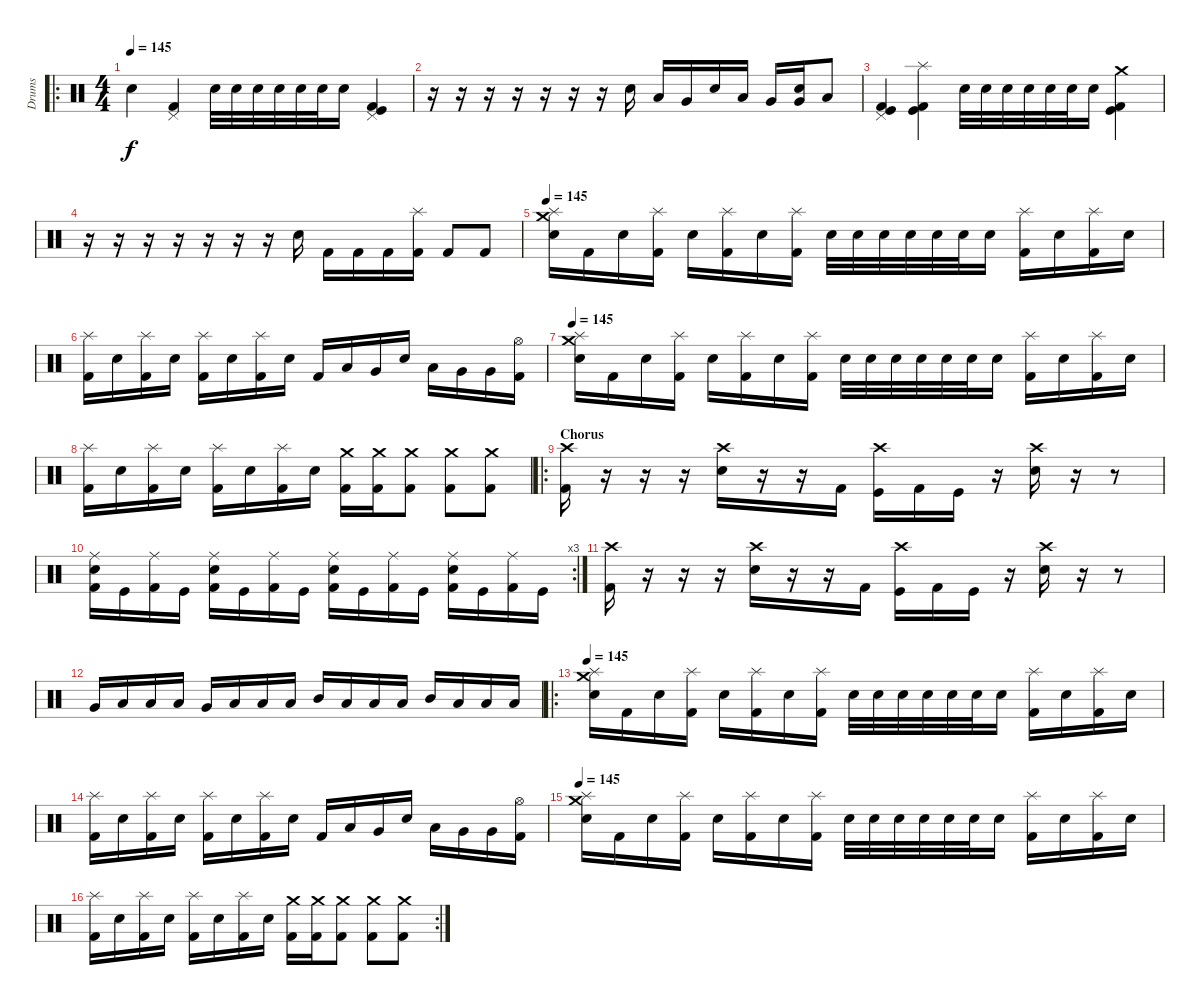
\track ("Drums" "Drums") {instrument percussion}
\staff {score}
\articulation defaults
\ro
\ts (4 4)
\tempo 145
\clef neutral
\ks c "Electric Snare (hit)".4{dy f}
("Kick (hit) 2" "Pedal Hi-Hat (hit)").4 "Electric Snare (hit)".32 "Electric Snare (hit)".32 "Electric Snare (hit)".32 "Electric Snare (hit)".32 "Electric Snare (hit)".32 "Electric Snare (hit)".32 "Electric Snare (hit)".16 ("Kick (hit) 2" "Kick (hit)" "Pedal Hi-Hat (hit)").4 |
r.16 r.16 r.16 r.16 r.16 r.16 r.16 "Electric Snare (hit)".16 "Low Tom (hit)".16 "Very Low Tom (hit)".16 "Electric Snare (hit)".16 "Low Tom (hit)".16 "Very Low Tom (hit)".16 ("Very Low Tom (hit)" "Snare (hit)").16 "Low Floor Tom (hit)".8 |
("Kick (hit) 2" "Kick (hit)" "Pedal Hi-Hat (hit)").4 ("Kick (hit) 2" "Kick (hit)" "Splash (hit)").4 "Electric Snare (hit)".32 "Electric Snare (hit)".32 "Electric Snare (hit)".32 "Electric Snare (hit)".32 "Electric Snare (hit)".32 "Electric Snare (hit)".32 "Electric Snare (hit)".16 ("Kick (hit) 2" "Kick (hit)" "Crash medium (hit)").4 |
r.16 r.16 r.16 r.16 r.16 r.16 r.16 "Electric Snare (hit)".16 "Kick (hit) 2".16 "Kick (hit) 2".16 "Kick (hit) 2".16 ("Kick (hit) 2" "Splash (hit)").16 "Kick (hit) 2".8 "Kick (hit) 2".8 |
\tempo 145
("Electric Snare (hit)" "Crash medium (hit)" "Splash (hit)").16 "Kick (hit) 2".16 "Electric Snare (hit)".16 ("Kick (hit) 2" "Splash (hit)").16 "Electric Snare (hit)".16 ("Kick (hit) 2" "Splash (hit)").16 "Electric Snare (hit)".16 ("Kick (hit) 2" "Splash (hit)").16 "Electric Snare (hit)".32 "Electric Snare (hit)".32 "Electric Snare (hit)".32 "Electric Snare (hit)".32 "Electric Snare (hit)".32 "Electric Snare (hit)".32 "Electric Snare (hit)".16 ("Kick (hit) 2" "Splash (hit)").16 "Electric Snare (hit)".16 ("Kick (hit) 2" "Splash (hit)").16 "Electric Snare (hit)".16 |
("Kick (hit) 2" "Splash (hit)").16 "Electric Snare (hit)".16 ("Kick (hit) 2" "Splash (hit)").16 "Electric Snare (hit)".16 ("Kick (hit) 2" "Splash (hit)").16 "Electric Snare (hit)".16 ("Kick (hit) 2" "Splash (hit)").16 "Electric Snare (hit)".16 "Kick (hit) 2".16 "Low Tom (hit)".16 "Very Low Tom (hit)".16 "Electric Snare (hit)".16 "Low Tom (hit)".16 "Very Low Tom (hit)".16 "Very Low Tom (hit)".16 ("Kick (hit) 2" "Hi-Hat (open)").16 |
\tempo 145
("Electric Snare (hit)" "Crash medium (hit)" "Splash (hit)").16 "Kick (hit) 2".16 "Electric Snare (hit)".16 ("Kick (hit) 2" "Splash (hit)").16 "Electric Snare (hit)".16 ("Kick (hit) 2" "Splash (hit)").16 "Electric Snare (hit)".16 ("Kick (hit) 2" "Splash (hit)").16 "Electric Snare (hit)".32 "Electric Snare (hit)".32 "Electric Snare (hit)".32 "Electric Snare (hit)".32 "Electric Snare (hit)".32 "Electric Snare (hit)".32 "Electric Snare (hit)".16 ("Kick (hit) 2" "Splash (hit)").16 "Electric Snare (hit)".16 ("Kick (hit) 2" "Splash (hit)").16 "Electric Snare (hit)".16 |
("Kick (hit) 2" "Splash (hit)").16 "Electric Snare (hit)".16 ("Kick (hit) 2" "Splash (hit)").16 "Electric Snare (hit)".16 ("Kick (hit) 2" "Splash (hit)").16 "Electric Snare (hit)".16 ("Kick (hit) 2" "Splash (hit)").16 "Electric Snare (hit)".16 ("Kick (hit) 2" "Crash medium (hit)").16 ("Kick (hit) 2" "Crash medium (hit)").16 ("Kick (hit) 2" "Crash medium (hit)").8 ("Kick (hit) 2" "Crash medium (hit)").8 ("Kick (hit) 2" "Crash medium (hit)").8 |
\ro
\section ("" "Chorus")
("Kick (hit) 2" "Crash high (hit)").16 r.16 r.16 r.16 ("Electric Snare (hit)" "Crash high (hit)").16 r.16 r.16 "Kick (hit) 2".16 ("Kick (hit)" "Crash high (hit)").16 "Kick (hit) 2".16 "Kick (hit)".16 r.16 ("Electric Snare (hit)" "Crash high (hit)").16 r.16 r.8 |
\rc 3
("Kick (hit) 2" "Electric Snare (hit)" "Ride (middle)").16 "Kick (hit)".16 ("Kick (hit) 2" "Ride (middle)").16 "Kick (hit)".16 ("Kick (hit) 2" "Electric Snare (hit)" "Ride (middle)").16 "Kick (hit)".16 ("Kick (hit) 2" "Ride (middle)").16 "Kick (hit)".16 ("Kick (hit) 2" "Electric Snare (hit)" "Ride (middle)").16 "Kick (hit)".16 ("Kick (hit) 2" "Ride (middle)").16 "Kick (hit)".16 ("Kick (hit) 2" "Electric Snare (hit)" "Ride (middle)").16 "Kick (hit)".16 ("Kick (hit) 2" "Ride (middle)").16 "Kick (hit)".16 |
("Kick (hit) 2" "Crash high (hit)").16 r.16 r.16 r.16 ("Electric Snare (hit)" "Crash high (hit)").16 r.16 r.16 "Kick (hit) 2".16 ("Kick (hit)" "Crash high (hit)").16 "Kick (hit) 2".16 "Kick (hit)".16 r.16 ("Electric Snare (hit)" "Crash high (hit)").16 r.16 r.8 |
"Very Low Tom (hit)".16 "Low Floor Tom (hit)".16 "Low Floor Tom (hit)".16 "Low Floor Tom (hit)".16 "Very Low Tom (hit)".16 "Low Floor Tom (hit)".16 "Low Floor Tom (hit)".16 "Low Floor Tom (hit)".16 "Mid Tom (hit)".16 "Low Tom (hit)".16 "Low Tom (hit)".16 "Low Tom (hit)".16 "Mid Tom (hit)".16 "Low Tom (hit)".16 "Low Tom (hit)".16 "Low Tom (hit)".16 |
\ro
\tempo 145
("Electric Snare (hit)" "Crash medium (hit)" "Splash (hit)").16 "Kick (hit) 2".16 "Electric Snare (hit)".16 ("Kick (hit) 2" "Splash (hit)").16 "Electric Snare (hit)".16 ("Kick (hit) 2" "Splash (hit)").16 "Electric Snare (hit)".16 ("Kick (hit) 2" "Splash (hit)").16 "Electric Snare (hit)".32 "Electric Snare (hit)".32 "Electric Snare (hit)".32 "Electric Snare (hit)".32 "Electric Snare (hit)".32 "Electric Snare (hit)".32 "Electric Snare (hit)".16 ("Kick (hit) 2" "Splash (hit)").16 "Electric Snare (hit)".16 ("Kick (hit) 2" "Splash (hit)").16 "Electric Snare (hit)".16 |
("Kick (hit) 2" "Splash (hit)").16 "Electric Snare (hit)".16 ("Kick (hit) 2" "Splash (hit)").16 "Electric Snare (hit)".16 ("Kick (hit) 2" "Splash (hit)").16 "Electric Snare (hit)".16 ("Kick (hit) 2" "Splash (hit)").16 "Electric Snare (hit)".16 "Kick (hit) 2".16 "Low Tom (hit)".16 "Very Low Tom (hit)".16 "Electric Snare (hit)".16 "Low Tom (hit)".16 "Very Low Tom (hit)".16 "Very Low Tom (hit)".16 ("Kick (hit) 2" "Hi-Hat (open)").16 |
\tempo 145
("Electric Snare (hit)" "Crash medium (hit)" "Splash (hit)").16 "Kick (hit) 2".16 "Electric Snare (hit)".16 ("Kick (hit) 2" "Splash (hit)").16 "Electric Snare (hit)".16 ("Kick (hit) 2" "Splash (hit)").16 "Electric Snare (hit)".16 ("Kick (hit) 2" "Splash (hit)").16 "Electric Snare (hit)".32 "Electric Snare (hit)".32 "Electric Snare (hit)".32 "Electric Snare (hit)".32 "Electric Snare (hit)".32 "Electric Snare (hit)".32 "Electric Snare (hit)".16 ("Kick (hit) 2" "Splash (hit)").16 "Electric Snare (hit)".16 ("Kick (hit) 2" "Splash (hit)").16 "Electric Snare (hit)".16 |
\rc 2
("Kick (hit) 2" "Splash (hit)").16 "Electric Snare (hit)".16 ("Kick (hit) 2" "Splash (hit)").16 "Electric Snare (hit)".16 ("Kick (hit) 2" "Splash (hit)").16 "Electric Snare (hit)".16 ("Kick (hit) 2" "Splash (hit)").16 "Electric Snare (hit)".16 ("Kick (hit) 2" "Crash medium (hit)").16 ("Kick (hit) 2" "Crash medium (hit)").16 ("Kick (hit) 2" "Crash medium (hit)").8 ("Kick (hit) 2" "Crash medium (hit)").8 ("Kick (hit) 2" "Crash medium (hit)").8
